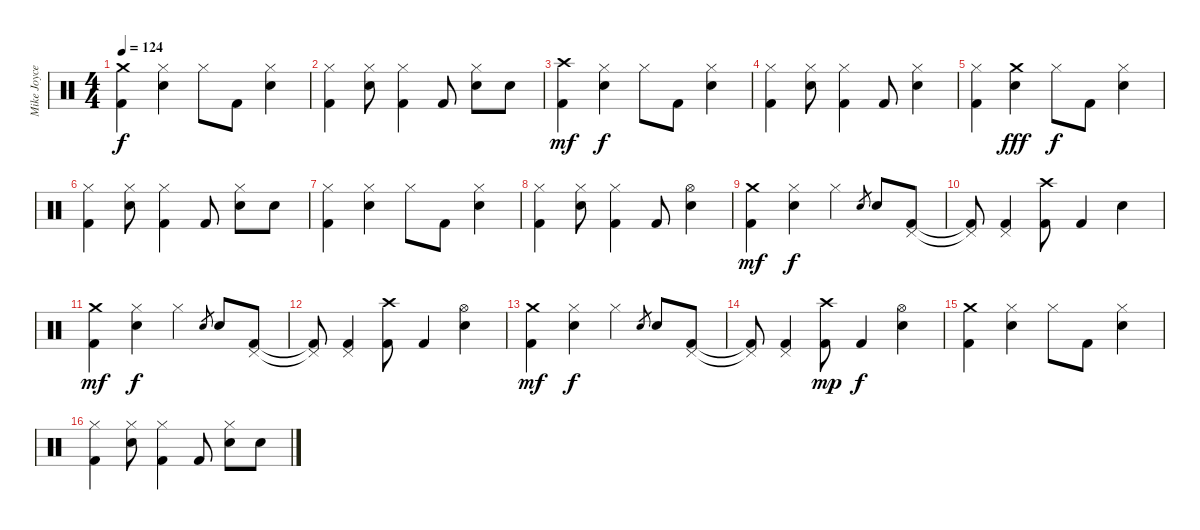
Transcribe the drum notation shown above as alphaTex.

\track ("Mike Joyce" "Mike Joyce") {instrument percussion}
\staff {score}
\articulation defaults
\ts (4 4)
\tempo 124
\clef neutral
\ks c
("Crash medium (hit)" "Kick (hit) 2").4{dy f} ("Hi-Hat (closed)" "Electric Snare (hit)").4 "Hi-Hat (closed)".8 "Kick (hit) 2".8 ("Hi-Hat (closed)" "Electric Snare (hit)").4 |
("Hi-Hat (closed)" "Kick (hit) 2").4 ("Hi-Hat (closed)" "Electric Snare (hit)").8 ("Hi-Hat (closed)" "Kick (hit) 2").4 "Kick (hit) 2".8 ("Hi-Hat (closed)" "Electric Snare (hit)").8 "Electric Snare (hit)".8 |
("Crash high (hit)" "Kick (hit) 2").4{dy mf} ("Hi-Hat (closed)" "Electric Snare (hit)").4{dy f} "Hi-Hat (closed)".8 "Kick (hit) 2".8 ("Hi-Hat (closed)" "Electric Snare (hit)").4 |
("Hi-Hat (closed)" "Kick (hit) 2").4 ("Hi-Hat (closed)" "Electric Snare (hit)").8 ("Hi-Hat (closed)" "Kick (hit) 2").4 "Kick (hit) 2".8 ("Hi-Hat (closed)" "Electric Snare (hit)").4 |
("Hi-Hat (closed)" "Kick (hit) 2").4 ("Crash medium (hit)" "Electric Snare (hit)").4{dy fff} "Hi-Hat (closed)".8{dy f} "Kick (hit) 2".8 ("Hi-Hat (closed)" "Electric Snare (hit)").4 |
("Hi-Hat (closed)" "Kick (hit) 2").4 ("Hi-Hat (closed)" "Electric Snare (hit)").8 ("Hi-Hat (closed)" "Kick (hit) 2").4 "Kick (hit) 2".8 ("Hi-Hat (closed)" "Electric Snare (hit)").8 "Electric Snare (hit)".8 |
("Hi-Hat (closed)" "Kick (hit) 2").4 ("Hi-Hat (closed)" "Electric Snare (hit)").4 "Hi-Hat (closed)".8 "Kick (hit) 2".8 ("Hi-Hat (closed)" "Electric Snare (hit)").4 |
("Hi-Hat (closed)" "Kick (hit) 2").4 ("Hi-Hat (closed)" "Electric Snare (hit)").8 ("Hi-Hat (closed)" "Kick (hit) 2").4 "Kick (hit) 2".8 ("Hi-Hat (open)" "Electric Snare (hit)").4 |
("Crash medium (hit)" "Kick (hit) 2").4{dy mf} ("Hi-Hat (closed)" "Electric Snare (hit)").4{dy f} "Hi-Hat (closed)".4 "Electric Snare (hit)".8{gr} "Electric Snare (hit)".8 ("Pedal Hi-Hat (hit)" "Kick (hit) 2").8 |
("Pedal Hi-Hat (hit)"{t} "Kick (hit) 2"{t}).8 ("Pedal Hi-Hat (hit)" "Kick (hit) 2").4 ("Crash high (hit)" "Kick (hit) 2").8 "Kick (hit) 2".4 "Electric Snare (hit)".4 |
("Crash medium (hit)" "Kick (hit) 2").4{dy mf} ("Hi-Hat (closed)" "Electric Snare (hit)").4{dy f} "Hi-Hat (closed)".4 "Electric Snare (hit)".8{gr} "Electric Snare (hit)".8 ("Pedal Hi-Hat (hit)" "Kick (hit) 2").8 |
("Pedal Hi-Hat (hit)"{t} "Kick (hit) 2"{t}).8 ("Pedal Hi-Hat (hit)" "Kick (hit) 2").4 ("Crash high (hit)" "Kick (hit) 2").8 "Kick (hit) 2".4 ("Hi-Hat (open)" "Electric Snare (hit)").4 |
("Crash medium (hit)" "Kick (hit) 2").4{dy mf} ("Hi-Hat (closed)" "Electric Snare (hit)").4{dy f} "Hi-Hat (closed)".4 "Electric Snare (hit)".8{gr} "Electric Snare (hit)".8 ("Pedal Hi-Hat (hit)" "Kick (hit) 2").8 |
("Pedal Hi-Hat (hit)"{t} "Kick (hit) 2"{t}).8 ("Pedal Hi-Hat (hit)" "Kick (hit) 2").4 ("Crash high (hit)" "Kick (hit) 2").8{dy mp} "Kick (hit) 2".4{dy f} ("Hi-Hat (open)" "Electric Snare (hit)").4 |
("Crash medium (hit)" "Kick (hit) 2").4 ("Hi-Hat (closed)" "Electric Snare (hit)").4 "Hi-Hat (closed)".8 "Kick (hit) 2".8 ("Hi-Hat (closed)" "Electric Snare (hit)").4 |
("Hi-Hat (closed)" "Kick (hit) 2").4 ("Hi-Hat (closed)" "Electric Snare (hit)").8 ("Hi-Hat (closed)" "Kick (hit) 2").4 "Kick (hit) 2".8 ("Hi-Hat (closed)" "Electric Snare (hit)").8 "Electric Snare (hit)".8
